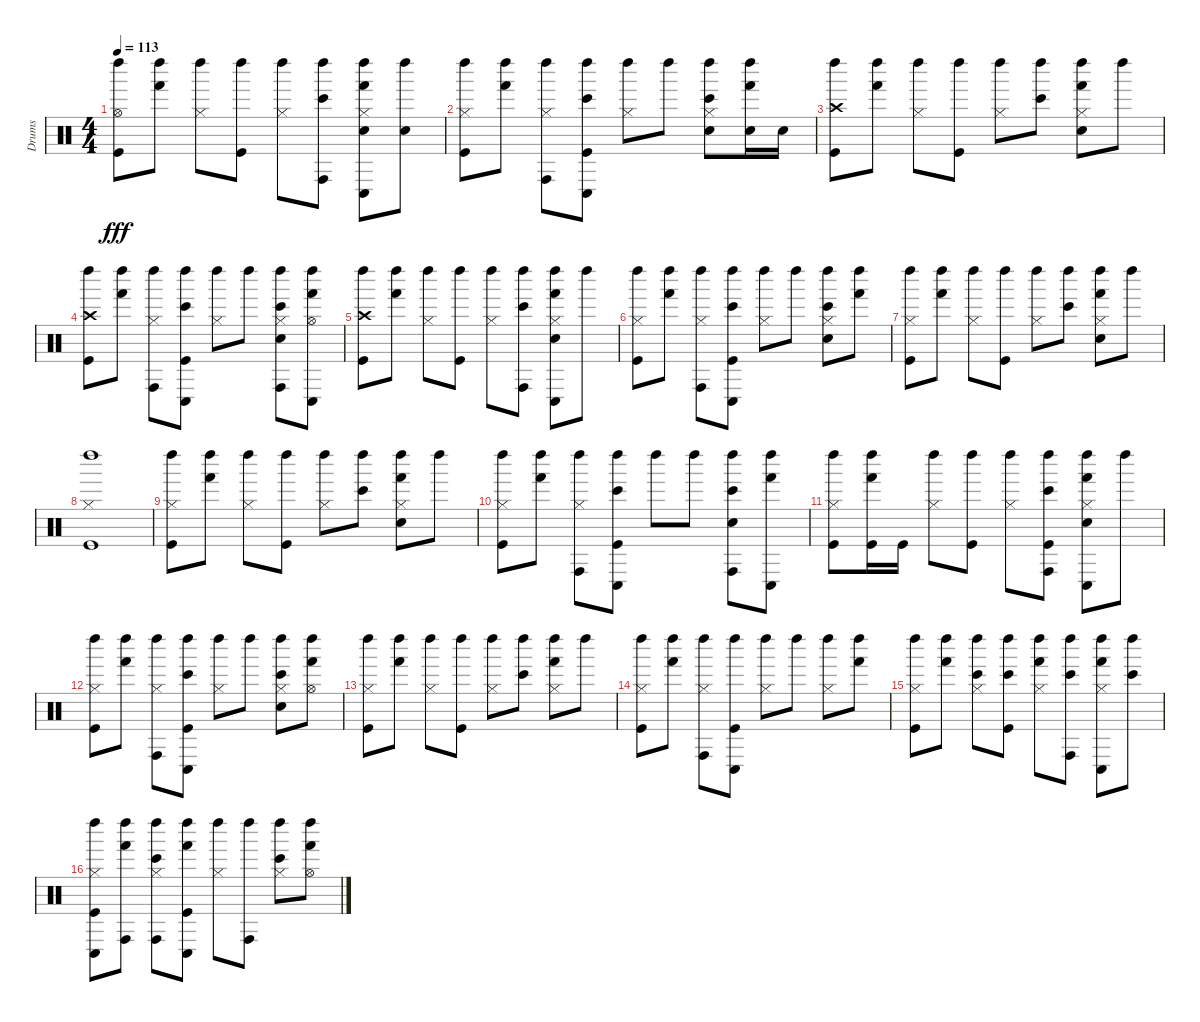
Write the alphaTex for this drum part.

\track ("Drums" "Drums") {instrument percussion}
\staff {score}
\articulation defaults
\ts (4 4)
\tempo 113
\clef neutral
\ks c
("Hi-Hat (open)" "Left Maraca (hit)" "Kick (hit)").8{dy fff} ("Left Maraca (hit)" "Hand (hit)").8 ("Hi-Hat (closed)" "Left Maraca (hit)").8 ("Left Maraca (hit)" "Kick (hit)").8 ("Hi-Hat (closed)" "Left Maraca (hit)").8 ("Left Maraca (hit)" "Conga high (hit)" "Bongo High (hit)").8 ("Hi-Hat (closed)" "Left Maraca (hit)" "Conga low (hit)" "Hand (hit)" "Snare (hit) 2").8 ("Left Maraca (hit)" "Snare (hit) 2").8 |
("Hi-Hat (closed)" "Left Maraca (hit)" "Kick (hit)").8 ("Left Maraca (hit)" "Hand (hit)").8 ("Hi-Hat (closed)" "Left Maraca (hit)" "Conga high (hit)").8 ("Left Maraca (hit)" "Conga low (hit)" "Bongo High (hit)" "Kick (hit)").8 ("Hi-Hat (closed)" "Left Maraca (hit)").8 "Left Maraca (hit)".8 ("Hi-Hat (closed)" "Left Maraca (hit)" "Bongo High (hit)" "Snare (hit) 2").8 ("Left Maraca (hit)" "Hand (hit)" "Snare (hit) 2").16 "Snare (hit) 2".16 |
("Crash high (hit)" "Left Maraca (hit)" "Kick (hit)").8 ("Left Maraca (hit)" "Hand (hit)").8 ("Hi-Hat (closed)" "Left Maraca (hit)").8 ("Left Maraca (hit)" "Kick (hit)").8 ("Hi-Hat (closed)" "Left Maraca (hit)").8 ("Left Maraca (hit)" "Bongo High (hit)").8 ("Hi-Hat (closed)" "Left Maraca (hit)" "Hand (hit)" "Snare (hit) 2").8 "Left Maraca (hit)".8 |
("Crash high (hit)" "Left Maraca (hit)" "Kick (hit)").8 ("Left Maraca (hit)" "Hand (hit)").8 ("Hi-Hat (closed)" "Left Maraca (hit)" "Conga high (hit)").8 ("Left Maraca (hit)" "Conga low (hit)" "Bongo High (hit)" "Kick (hit)").8 ("Hi-Hat (closed)" "Left Maraca (hit)").8 "Left Maraca (hit)".8 ("Hi-Hat (closed)" "Left Maraca (hit)" "Conga high (hit)" "Bongo High (hit)" "Snare (hit) 2").8 ("Hi-Hat (open)" "Left Maraca (hit)" "Conga low (hit)" "Hand (hit)").8 |
("Crash high (hit)" "Left Maraca (hit)" "Kick (hit)").8 ("Left Maraca (hit)" "Hand (hit)").8 ("Hi-Hat (closed)" "Left Maraca (hit)").8 ("Left Maraca (hit)" "Kick (hit)").8 ("Hi-Hat (closed)" "Left Maraca (hit)").8 ("Left Maraca (hit)" "Conga high (hit)" "Bongo High (hit)").8 ("Hi-Hat (closed)" "Left Maraca (hit)" "Conga low (hit)" "Hand (hit)" "Snare (hit) 2").8 "Left Maraca (hit)".8 |
("Hi-Hat (closed)" "Left Maraca (hit)" "Kick (hit)").8 ("Left Maraca (hit)" "Hand (hit)").8 ("Hi-Hat (closed)" "Left Maraca (hit)" "Conga high (hit)").8 ("Left Maraca (hit)" "Conga low (hit)" "Bongo High (hit)" "Kick (hit)").8 ("Hi-Hat (closed)" "Left Maraca (hit)").8 "Left Maraca (hit)".8 ("Hi-Hat (closed)" "Left Maraca (hit)" "Bongo High (hit)" "Snare (hit) 2").8 ("Left Maraca (hit)" "Hand (hit)").8 |
("Hi-Hat (closed)" "Left Maraca (hit)" "Kick (hit)").8 ("Left Maraca (hit)" "Hand (hit)").8 ("Hi-Hat (closed)" "Left Maraca (hit)").8 ("Left Maraca (hit)" "Kick (hit)").8 ("Hi-Hat (closed)" "Left Maraca (hit)").8 ("Left Maraca (hit)" "Bongo High (hit)").8 ("Hi-Hat (closed)" "Left Maraca (hit)" "Hand (hit)" "Snare (hit) 2").8 "Left Maraca (hit)".8 |
("Hi-Hat (closed)" "Left Maraca (hit)" "Kick (hit)").1 |
("Hi-Hat (closed)" "Left Maraca (hit)" "Kick (hit)").8 ("Left Maraca (hit)" "Hand (hit)").8 ("Hi-Hat (closed)" "Left Maraca (hit)").8 ("Left Maraca (hit)" "Kick (hit)").8 ("Hi-Hat (closed)" "Left Maraca (hit)").8 ("Left Maraca (hit)" "Bongo High (hit)").8 ("Hi-Hat (closed)" "Left Maraca (hit)" "Hand (hit)" "Snare (hit) 2").8 "Left Maraca (hit)".8 |
("Hi-Hat (closed)" "Left Maraca (hit)" "Kick (hit)").8 ("Left Maraca (hit)" "Hand (hit)").8 ("Hi-Hat (closed)" "Left Maraca (hit)" "Conga high (hit)").8 ("Left Maraca (hit)" "Conga low (hit)" "Bongo High (hit)" "Kick (hit)").8 "Left Maraca (hit)".8 "Left Maraca (hit)".8 ("Left Maraca (hit)" "Conga high (hit)" "Bongo High (hit)" "Snare (hit) 2").8 ("Left Maraca (hit)" "Conga low (hit)" "Hand (hit)").8 |
("Hi-Hat (closed)" "Left Maraca (hit)" "Kick (hit)").8 ("Left Maraca (hit)" "Hand (hit)" "Kick (hit)").16 "Kick (hit)".16 ("Hi-Hat (closed)" "Left Maraca (hit)").8 ("Left Maraca (hit)" "Kick (hit)").8 ("Hi-Hat (closed)" "Left Maraca (hit)").8 ("Left Maraca (hit)" "Conga high (hit)" "Bongo High (hit)" "Kick (hit)").8 ("Hi-Hat (closed)" "Left Maraca (hit)" "Conga low (hit)" "Hand (hit)" "Snare (hit) 2").8 "Left Maraca (hit)".8 |
("Hi-Hat (closed)" "Left Maraca (hit)" "Kick (hit)").8 ("Left Maraca (hit)" "Hand (hit)").8 ("Hi-Hat (closed)" "Left Maraca (hit)" "Conga high (hit)").8 ("Left Maraca (hit)" "Conga low (hit)" "Bongo High (hit)" "Kick (hit)").8 ("Hi-Hat (closed)" "Left Maraca (hit)").8 "Left Maraca (hit)".8 ("Hi-Hat (closed)" "Left Maraca (hit)" "Bongo High (hit)" "Snare (hit) 2").8 ("Hi-Hat (open)" "Left Maraca (hit)" "Hand (hit)").8 |
("Hi-Hat (closed)" "Left Maraca (hit)" "Kick (hit)").8 ("Left Maraca (hit)" "Hand (hit)").8 ("Hi-Hat (closed)" "Left Maraca (hit)").8 ("Left Maraca (hit)" "Kick (hit)").8 ("Hi-Hat (closed)" "Left Maraca (hit)").8 ("Left Maraca (hit)" "Bongo High (hit)").8 ("Hi-Hat (closed)" "Left Maraca (hit)" "Hand (hit)").8 "Left Maraca (hit)".8 |
("Hi-Hat (closed)" "Left Maraca (hit)" "Kick (hit)").8 ("Left Maraca (hit)" "Hand (hit)").8 ("Hi-Hat (closed)" "Left Maraca (hit)" "Conga high (hit)").8 ("Left Maraca (hit)" "Conga low (hit)" "Kick (hit)").8 ("Hi-Hat (closed)" "Left Maraca (hit)").8 "Left Maraca (hit)".8 ("Hi-Hat (closed)" "Left Maraca (hit)").8 ("Left Maraca (hit)" "Hand (hit)").8 |
("Hi-Hat (closed)" "Left Maraca (hit)" "Kick (hit)").8 ("Left Maraca (hit)" "Hand (hit)").8 ("Hi-Hat (closed)" "Left Maraca (hit)" "Bongo High (hit)").8 ("Left Maraca (hit)" "Bongo High (hit)" "Kick (hit)").8 ("Hi-Hat (closed)" "Left Maraca (hit)" "Hand (hit)").8 ("Left Maraca (hit)" "Conga high (hit)" "Bongo High (hit)").8 ("Hi-Hat (closed)" "Left Maraca (hit)" "Conga low (hit)" "Hand (hit)").8 ("Left Maraca (hit)" "Bongo High (hit)").8 |
("Hi-Hat (closed)" "Left Maraca (hit)" "Conga low (hit)" "Kick (hit)").8 ("Left Maraca (hit)" "Conga high (hit)" "Hand (hit)").8 ("Hi-Hat (closed)" "Left Maraca (hit)" "Conga high (hit)" "Bongo High (hit)").8 ("Left Maraca (hit)" "Conga low (hit)" "Hand (hit)" "Kick (hit)").8 ("Hi-Hat (closed)" "Left Maraca (hit)").8 ("Left Maraca (hit)" "Conga high (hit)").8 ("Hi-Hat (closed)" "Left Maraca (hit)" "Bongo High (hit)").8 ("Hi-Hat (open)" "Left Maraca (hit)" "Hand (hit)").8
